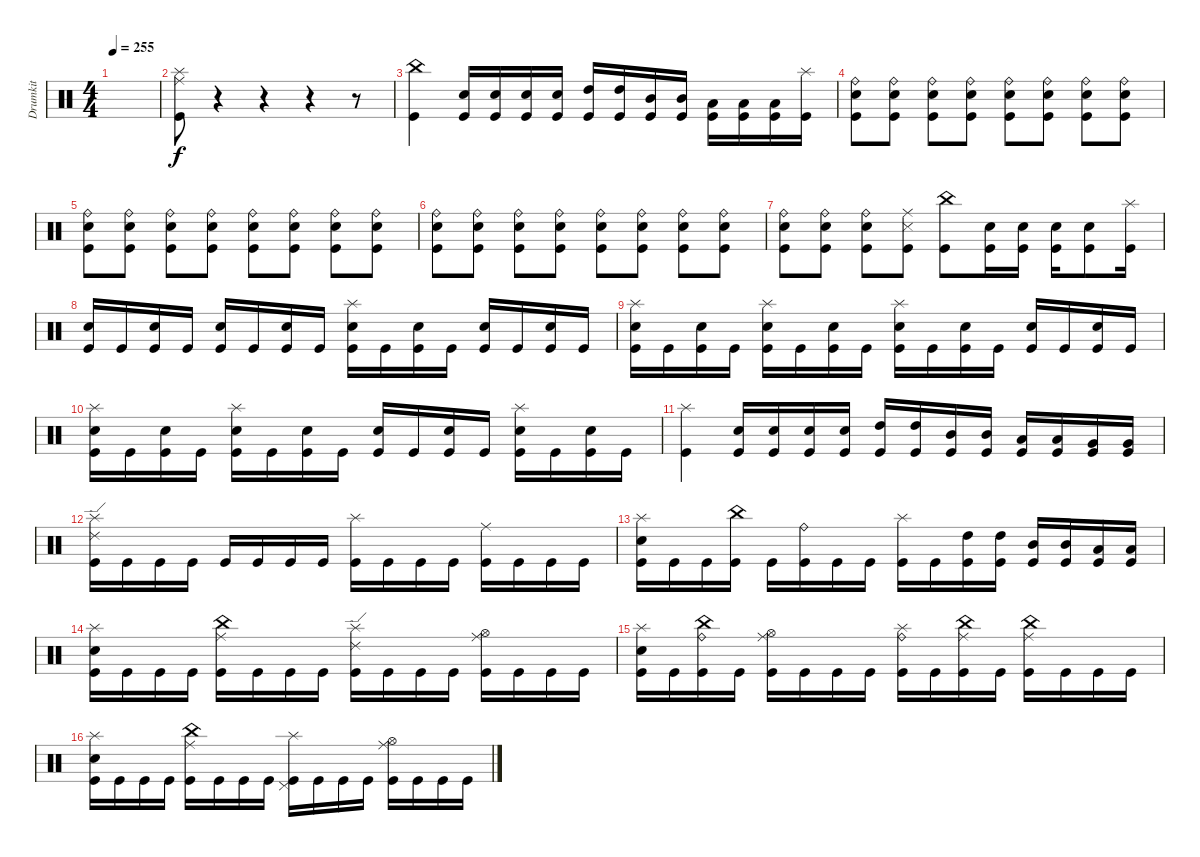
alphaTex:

\track ("Drumkit" "Drumkit") {instrument percussion}
\staff {score}
\articulation defaults
\ts (4 4)
\tempo 255
\clef neutral
\ks c
|
("Splash (hit)" "Ride (middle)" "Kick (hit)").8 r.4 r.4 r.4 r.8 |
("China (hit)" "Kick (hit)").4 ("Snare (hit) 2" "Kick (hit)").16 ("Snare (hit) 2" "Kick (hit)").16 ("Snare (hit) 2" "Kick (hit)").16 ("Snare (hit) 2" "Kick (hit)").16 ("High Tom (hit)" "Kick (hit)").16 ("High Tom (hit)" "Kick (hit)").16 ("Mid Tom (hit)" "Kick (hit)").16 ("Mid Tom (hit)" "Kick (hit)").16 ("Low Tom (hit)" "Kick (hit)").16 ("Low Tom (hit)" "Kick (hit)").16 ("Low Tom (hit)" "Kick (hit)").16 ("Splash (hit)" "Kick (hit)").16 |
("Ride (bell)" "Kick (hit)" "Snare (hit) 2").8 ("Ride (bell)" "Kick (hit)" "Snare (hit) 2").8 ("Ride (bell)" "Kick (hit)" "Snare (hit) 2").8 ("Ride (bell)" "Kick (hit)" "Snare (hit) 2").8 ("Ride (bell)" "Kick (hit)" "Snare (hit) 2").8 ("Ride (bell)" "Kick (hit)" "Snare (hit) 2").8 ("Ride (bell)" "Kick (hit)" "Snare (hit) 2").8 ("Ride (bell)" "Kick (hit)" "Snare (hit) 2").8 |
("Ride (bell)" "Kick (hit)" "Snare (hit) 2").8 ("Ride (bell)" "Kick (hit)" "Snare (hit) 2").8 ("Ride (bell)" "Kick (hit)" "Snare (hit) 2").8 ("Ride (bell)" "Kick (hit)" "Snare (hit) 2").8 ("Ride (bell)" "Kick (hit)" "Snare (hit) 2").8 ("Ride (bell)" "Kick (hit)" "Snare (hit) 2").8 ("Ride (bell)" "Kick (hit)" "Snare (hit) 2").8 ("Ride (bell)" "Kick (hit)" "Snare (hit) 2").8 |
("Ride (bell)" "Kick (hit)" "Snare (hit) 2").8 ("Ride (bell)" "Kick (hit)" "Snare (hit) 2").8 ("Ride (bell)" "Kick (hit)" "Snare (hit) 2").8 ("Ride (bell)" "Kick (hit)" "Snare (hit) 2").8 ("Ride (bell)" "Kick (hit)" "Snare (hit) 2").8 ("Ride (bell)" "Kick (hit)" "Snare (hit) 2").8 ("Ride (bell)" "Kick (hit)" "Snare (hit) 2").8 ("Ride (bell)" "Kick (hit)" "Snare (hit) 2").8 |
("Ride (bell)" "Kick (hit)" "Snare (hit) 2").8 ("Ride (bell)" "Kick (hit)" "Snare (hit) 2").8 ("Ride (bell)" "Kick (hit)" "Snare (hit) 2").8 ("Ride (middle)" "Kick (hit)" "Snare (side stick) 3").8 ("Kick (hit)" "China (hit)").8 ("Snare (hit) 2" "Kick (hit)").16 ("Snare (hit) 2" "Kick (hit)").16 ("Snare (hit) 2" "Kick (hit)").16 ("Snare (hit) 2" "Kick (hit)").8 ("Splash (hit)" "Kick (hit)").16 |
("Snare (hit) 2" "Kick (hit)").16 "Kick (hit)".16 ("Snare (hit) 2" "Kick (hit)").16 "Kick (hit)".16 ("Snare (hit) 2" "Kick (hit)").16 "Kick (hit)".16 ("Snare (hit) 2" "Kick (hit)").16 "Kick (hit)".16 ("Snare (hit) 2" "Splash (hit)" "Kick (hit)").16 "Kick (hit)".16 ("Snare (hit) 2" "Kick (hit)").16 "Kick (hit)".16 ("Snare (hit) 2" "Kick (hit)").16 "Kick (hit)".16 ("Snare (hit) 2" "Kick (hit)").16 "Kick (hit)".16 |
("Snare (hit) 2" "Splash (hit)" "Kick (hit)").16 "Kick (hit)".16 ("Snare (hit) 2" "Kick (hit)").16 "Kick (hit)".16 ("Snare (hit) 2" "Splash (hit)" "Kick (hit)").16 "Kick (hit)".16 ("Snare (hit) 2" "Kick (hit)").16 "Kick (hit)".16 ("Snare (hit) 2" "Splash (hit)" "Kick (hit)").16 "Kick (hit)".16 ("Snare (hit) 2" "Kick (hit)").16 "Kick (hit)".16 ("Snare (hit) 2" "Kick (hit)").16 "Kick (hit)".16 ("Snare (hit) 2" "Kick (hit)").16 "Kick (hit)".16 |
("Snare (hit) 2" "Splash (hit)" "Kick (hit)").16 "Kick (hit)".16 ("Snare (hit) 2" "Kick (hit)").16 "Kick (hit)".16 ("Snare (hit) 2" "Splash (hit)" "Kick (hit)").16 "Kick (hit)".16 ("Snare (hit) 2" "Kick (hit)").16 "Kick (hit)".16 ("Snare (hit) 2" "Kick (hit)").16 "Kick (hit)".16 ("Snare (hit) 2" "Kick (hit)").16 "Kick (hit)".16 ("Snare (hit) 2" "Splash (hit)" "Kick (hit)").16 "Kick (hit)".16 ("Snare (hit) 2" "Kick (hit)").16 "Kick (hit)".16 |
("Splash (hit)" "Kick (hit)").4 ("Snare (hit) 2" "Kick (hit)").16 ("Snare (hit) 2" "Kick (hit)").16 ("Snare (hit) 2" "Kick (hit)").16 ("Snare (hit) 2" "Kick (hit)").16 ("High Tom (hit)" "Kick (hit)").16 ("High Tom (hit)" "Kick (hit)").16 ("Mid Tom (hit)" "Kick (hit)").16 ("Mid Tom (hit)" "Kick (hit)").16 ("Low Tom (hit)" "Kick (hit)").16 ("Low Tom (hit)" "Kick (hit)").16 ("Kick (hit)" "Very Low Tom (hit)").16 ("Kick (hit)" "Very Low Tom (hit)").16 |
("Splash (hit)" "Kick (hit)" "Ride (edge) 2").16 "Kick (hit)".16 "Kick (hit)".16 "Kick (hit)".16 "Kick (hit)".16 "Kick (hit)".16 "Kick (hit)".16 "Kick (hit)".16 ("Splash (hit)" "Kick (hit)").16 "Kick (hit)".16 "Kick (hit)".16 "Kick (hit)".16 ("Ride (middle)" "Kick (hit)").16 "Kick (hit)".16 "Kick (hit)".16 "Kick (hit)".16 |
("Splash (hit)" "Snare (hit) 2" "Kick (hit)").16 "Kick (hit)".16 "Kick (hit)".16 ("China (hit)" "Kick (hit)").16 "Kick (hit)".16 ("Ride (bell)" "Kick (hit)").16 "Kick (hit)".16 "Kick (hit)".16 ("Splash (hit)" "Kick (hit)").16 "Kick (hit)".16 ("High Tom (hit)" "Kick (hit)").16 ("High Tom (hit)" "Kick (hit)").16 ("Mid Tom (hit)" "Kick (hit)").16 ("Mid Tom (hit)" "Kick (hit)").16 ("Low Tom (hit)" "Kick (hit)").16 ("Low Tom (hit)" "Kick (hit)").16 |
("Splash (hit)" "Snare (hit) 2" "Kick (hit)").16 "Kick (hit)".16 "Kick (hit)".16 "Kick (hit)".16 ("Ride (middle)" "Kick (hit)" "China (hit)").16 "Kick (hit)".16 "Kick (hit)".16 "Kick (hit)".16 ("Splash (hit)" "Kick (hit)" "Ride (edge) 2").16 "Kick (hit)".16 "Kick (hit)".16 "Kick (hit)".16 ("Ride (middle)" "Kick (hit)" "Hi-Hat (open)").16 "Kick (hit)".16 "Kick (hit)".16 "Kick (hit)".16 |
("Splash (hit)" "Snare (hit) 2" "Kick (hit)").16 "Kick (hit)".16 ("Kick (hit)" "China (hit)" "Ride (bell)").16 "Kick (hit)".16 ("Ride (middle)" "Kick (hit)" "Hi-Hat (open)").16 "Kick (hit)".16 "Kick (hit)".16 "Kick (hit)".16 ("Kick (hit)" "Splash (hit)" "Ride (bell)").16 "Kick (hit)".16 ("Kick (hit)" "Ride (middle)" "China (hit)").16 "Kick (hit)".16 ("Kick (hit)" "China (hit)" "Ride (middle)").16 "Kick (hit)".16 "Kick (hit)".16 "Kick (hit)".16 |
("Splash (hit)" "Snare (hit) 2" "Kick (hit)").16 "Kick (hit)".16 "Kick (hit)".16 "Kick (hit)".16 ("China (hit)" "Kick (hit)" "Ride (middle)").16 "Kick (hit)".16 "Kick (hit)".16 "Kick (hit)".16 ("Splash (hit)" "Kick (hit)" "Pedal Hi-Hat (hit)").16 "Kick (hit)".16 "Kick (hit)".16 "Kick (hit)".16 ("Ride (middle)" "Kick (hit)" "Hi-Hat (open)").16 "Kick (hit)".16 "Kick (hit)".16 "Kick (hit)".16
